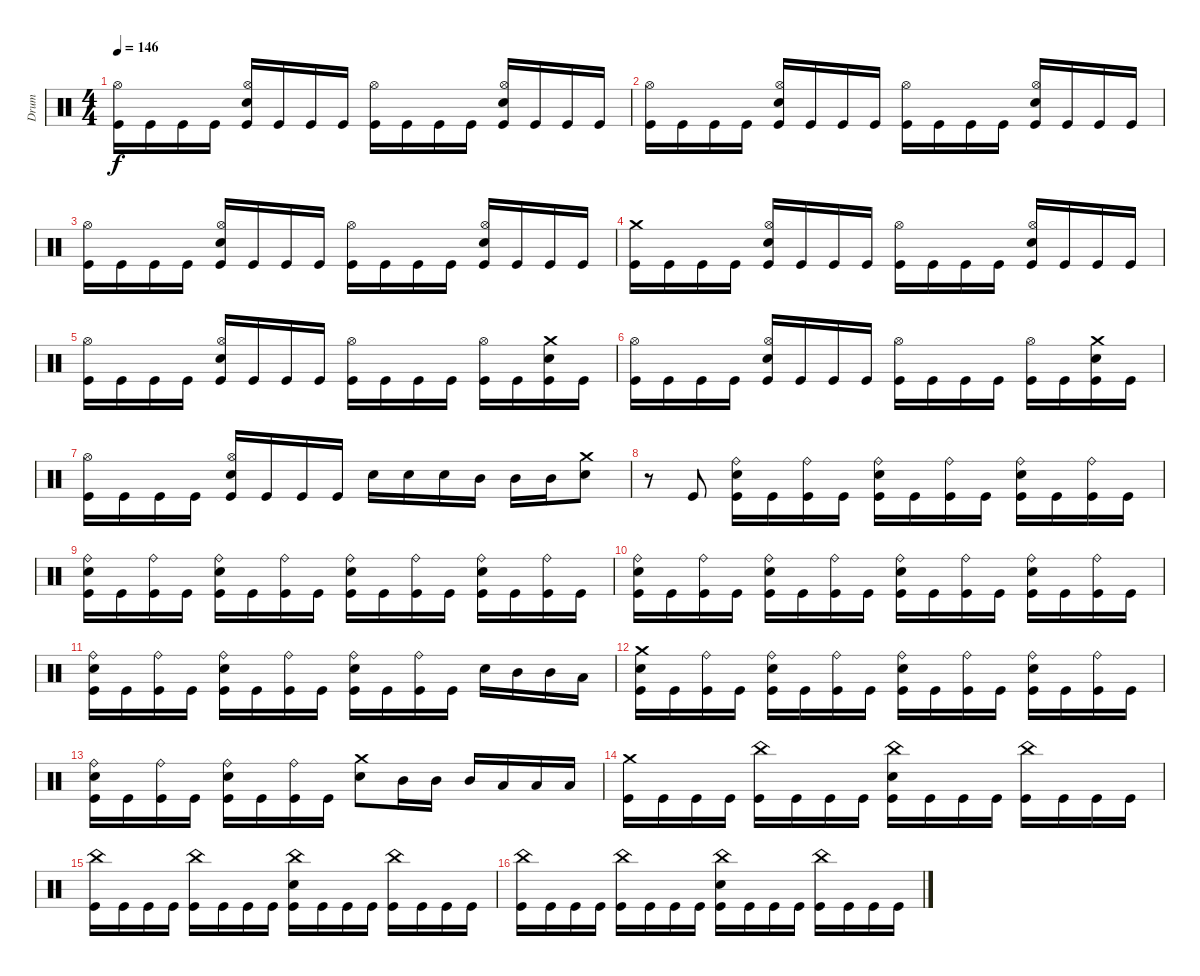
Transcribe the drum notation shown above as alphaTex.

\track ("Drum" "Drum") {instrument percussion}
\staff {score}
\articulation defaults
\ts (4 4)
\tempo 146
\clef neutral
\ks c
("Kick (hit)" "Hi-Hat (open)").16{dy f} "Kick (hit)".16 "Kick (hit)".16 "Kick (hit)".16 ("Kick (hit)" "Electric Snare (hit)" "Hi-Hat (open)").16 "Kick (hit)".16 "Kick (hit)".16 "Kick (hit)".16 ("Kick (hit)" "Hi-Hat (open)").16 "Kick (hit)".16 "Kick (hit)".16 "Kick (hit)".16 ("Kick (hit)" "Electric Snare (hit)" "Hi-Hat (open)").16 "Kick (hit)".16 "Kick (hit)".16 "Kick (hit)".16 |
("Kick (hit)" "Hi-Hat (open)").16 "Kick (hit)".16 "Kick (hit)".16 "Kick (hit)".16 ("Kick (hit)" "Electric Snare (hit)" "Hi-Hat (open)").16 "Kick (hit)".16 "Kick (hit)".16 "Kick (hit)".16 ("Kick (hit)" "Hi-Hat (open)").16 "Kick (hit)".16 "Kick (hit)".16 "Kick (hit)".16 ("Kick (hit)" "Electric Snare (hit)" "Hi-Hat (open)").16 "Kick (hit)".16 "Kick (hit)".16 "Kick (hit)".16 |
("Kick (hit)" "Hi-Hat (open)").16 "Kick (hit)".16 "Kick (hit)".16 "Kick (hit)".16 ("Kick (hit)" "Electric Snare (hit)" "Hi-Hat (open)").16 "Kick (hit)".16 "Kick (hit)".16 "Kick (hit)".16 ("Kick (hit)" "Hi-Hat (open)").16 "Kick (hit)".16 "Kick (hit)".16 "Kick (hit)".16 ("Kick (hit)" "Electric Snare (hit)" "Hi-Hat (open)").16 "Kick (hit)".16 "Kick (hit)".16 "Kick (hit)".16 |
("Kick (hit)" "Crash medium (hit)").16 "Kick (hit)".16 "Kick (hit)".16 "Kick (hit)".16 ("Kick (hit)" "Electric Snare (hit)" "Hi-Hat (open)").16 "Kick (hit)".16 "Kick (hit)".16 "Kick (hit)".16 ("Kick (hit)" "Hi-Hat (open)").16 "Kick (hit)".16 "Kick (hit)".16 "Kick (hit)".16 ("Kick (hit)" "Electric Snare (hit)" "Hi-Hat (open)").16 "Kick (hit)".16 "Kick (hit)".16 "Kick (hit)".16 |
("Kick (hit)" "Hi-Hat (open)").16 "Kick (hit)".16 "Kick (hit)".16 "Kick (hit)".16 ("Kick (hit)" "Electric Snare (hit)" "Hi-Hat (open)").16 "Kick (hit)".16 "Kick (hit)".16 "Kick (hit)".16 ("Kick (hit)" "Hi-Hat (open)").16 "Kick (hit)".16 "Kick (hit)".16 "Kick (hit)".16 ("Kick (hit)" "Hi-Hat (open)").16 "Kick (hit)".16 ("Kick (hit)" "Electric Snare (hit)" "Crash medium (hit)").16 "Kick (hit)".16 |
("Kick (hit)" "Hi-Hat (open)").16 "Kick (hit)".16 "Kick (hit)".16 "Kick (hit)".16 ("Kick (hit)" "Electric Snare (hit)" "Hi-Hat (open)").16 "Kick (hit)".16 "Kick (hit)".16 "Kick (hit)".16 ("Kick (hit)" "Hi-Hat (open)").16 "Kick (hit)".16 "Kick (hit)".16 "Kick (hit)".16 ("Kick (hit)" "Hi-Hat (open)").16 "Kick (hit)".16 ("Kick (hit)" "Electric Snare (hit)" "Crash medium (hit)").16 "Kick (hit)".16 |
("Kick (hit)" "Hi-Hat (open)").16 "Kick (hit)".16 "Kick (hit)".16 "Kick (hit)".16 ("Kick (hit)" "Electric Snare (hit)" "Hi-Hat (open)").16 "Kick (hit)".16 "Kick (hit)".16 "Kick (hit)".16 "Electric Snare (hit)".16 "Electric Snare (hit)".16 "Electric Snare (hit)".16 "Mid Tom (hit)".16 "Mid Tom (hit)".16 "Mid Tom (hit)".16 ("Electric Snare (hit)" "Crash medium (hit)").8 |
r.8 "Kick (hit)".8 ("Kick (hit)" "Electric Snare (hit)" "Ride (bell)").16 "Kick (hit)".16 ("Kick (hit)" "Ride (bell)").16 "Kick (hit)".16 ("Kick (hit)" "Electric Snare (hit)" "Ride (bell)").16 "Kick (hit)".16 ("Kick (hit)" "Ride (bell)").16 "Kick (hit)".16 ("Kick (hit)" "Electric Snare (hit)" "Ride (bell)").16 "Kick (hit)".16 ("Kick (hit)" "Ride (bell)").16 "Kick (hit)".16 |
("Kick (hit)" "Electric Snare (hit)" "Ride (bell)").16 "Kick (hit)".16 ("Kick (hit)" "Ride (bell)").16 "Kick (hit)".16 ("Kick (hit)" "Electric Snare (hit)" "Ride (bell)").16 "Kick (hit)".16 ("Kick (hit)" "Ride (bell)").16 "Kick (hit)".16 ("Kick (hit)" "Electric Snare (hit)" "Ride (bell)").16 "Kick (hit)".16 ("Kick (hit)" "Ride (bell)").16 "Kick (hit)".16 ("Kick (hit)" "Electric Snare (hit)" "Ride (bell)").16 "Kick (hit)".16 ("Kick (hit)" "Ride (bell)").16 "Kick (hit)".16 |
("Kick (hit)" "Electric Snare (hit)" "Ride (bell)").16 "Kick (hit)".16 ("Kick (hit)" "Ride (bell)").16 "Kick (hit)".16 ("Kick (hit)" "Electric Snare (hit)" "Ride (bell)").16 "Kick (hit)".16 ("Kick (hit)" "Ride (bell)").16 "Kick (hit)".16 ("Kick (hit)" "Electric Snare (hit)" "Ride (bell)").16 "Kick (hit)".16 ("Kick (hit)" "Ride (bell)").16 "Kick (hit)".16 ("Kick (hit)" "Electric Snare (hit)" "Ride (bell)").16 "Kick (hit)".16 ("Kick (hit)" "Ride (bell)").16 "Kick (hit)".16 |
("Kick (hit)" "Electric Snare (hit)" "Ride (bell)").16 "Kick (hit)".16 ("Kick (hit)" "Ride (bell)").16 "Kick (hit)".16 ("Kick (hit)" "Electric Snare (hit)" "Ride (bell)").16 "Kick (hit)".16 ("Kick (hit)" "Ride (bell)").16 "Kick (hit)".16 ("Kick (hit)" "Electric Snare (hit)" "Ride (bell)").16 "Kick (hit)".16 ("Kick (hit)" "Ride (bell)").16 "Kick (hit)".16 "Electric Snare (hit)".16 "Mid Tom (hit)".16 "Mid Tom (hit)".16 "Low Tom (hit)".16 |
("Kick (hit)" "Electric Snare (hit)" "Crash medium (hit)").16 "Kick (hit)".16 ("Kick (hit)" "Ride (bell)").16 "Kick (hit)".16 ("Kick (hit)" "Electric Snare (hit)" "Ride (bell)").16 "Kick (hit)".16 ("Kick (hit)" "Ride (bell)").16 "Kick (hit)".16 ("Kick (hit)" "Electric Snare (hit)" "Ride (bell)").16 "Kick (hit)".16 ("Kick (hit)" "Ride (bell)").16 "Kick (hit)".16 ("Kick (hit)" "Electric Snare (hit)" "Ride (bell)").16 "Kick (hit)".16 ("Kick (hit)" "Ride (bell)").16 "Kick (hit)".16 |
("Kick (hit)" "Electric Snare (hit)" "Ride (bell)").16 "Kick (hit)".16 ("Kick (hit)" "Ride (bell)").16 "Kick (hit)".16 ("Kick (hit)" "Electric Snare (hit)" "Ride (bell)").16 "Kick (hit)".16 ("Kick (hit)" "Ride (bell)").16 "Kick (hit)".16 ("Electric Snare (hit)" "Crash medium (hit)").8 "Mid Tom (hit)".16 "Mid Tom (hit)".16 "Mid Tom (hit)".16 "Low Tom (hit)".16 "Low Tom (hit)".16 "Low Tom (hit)".16 |
("Kick (hit)" "Crash medium (hit)").16 "Kick (hit)".16 "Kick (hit)".16 "Kick (hit)".16 ("Kick (hit)" "China (hit)").16 "Kick (hit)".16 "Kick (hit)".16 "Kick (hit)".16 ("Kick (hit)" "Electric Snare (hit)" "China (hit)").16 "Kick (hit)".16 "Kick (hit)".16 "Kick (hit)".16 ("Kick (hit)" "China (hit)").16 "Kick (hit)".16 "Kick (hit)".16 "Kick (hit)".16 |
("Kick (hit)" "China (hit)").16 "Kick (hit)".16 "Kick (hit)".16 "Kick (hit)".16 ("Kick (hit)" "China (hit)").16 "Kick (hit)".16 "Kick (hit)".16 "Kick (hit)".16 ("Kick (hit)" "Electric Snare (hit)" "China (hit)").16 "Kick (hit)".16 "Kick (hit)".16 "Kick (hit)".16 ("Kick (hit)" "China (hit)").16 "Kick (hit)".16 "Kick (hit)".16 "Kick (hit)".16 |
("Kick (hit)" "China (hit)").16 "Kick (hit)".16 "Kick (hit)".16 "Kick (hit)".16 ("Kick (hit)" "China (hit)").16 "Kick (hit)".16 "Kick (hit)".16 "Kick (hit)".16 ("Kick (hit)" "Electric Snare (hit)" "China (hit)").16 "Kick (hit)".16 "Kick (hit)".16 "Kick (hit)".16 ("Kick (hit)" "China (hit)").16 "Kick (hit)".16 "Kick (hit)".16 "Kick (hit)".16
